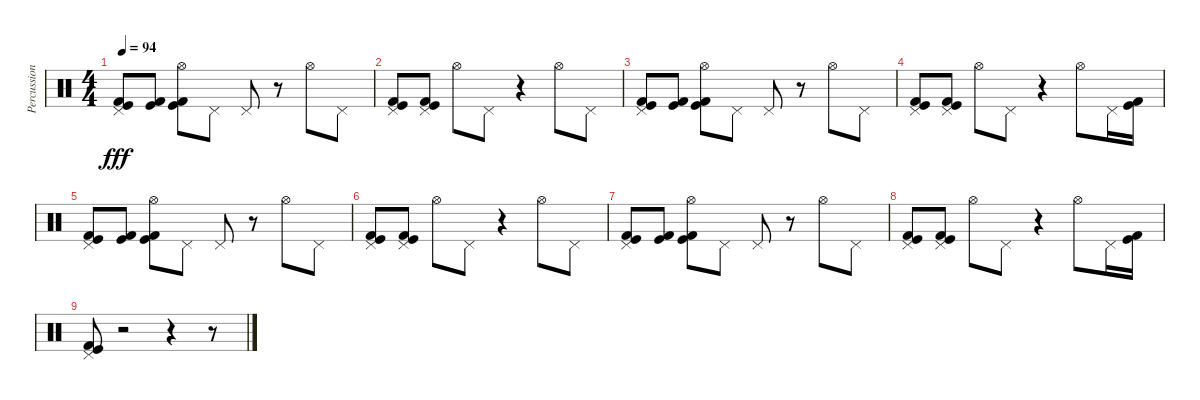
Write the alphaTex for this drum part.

\track ("Percussion" "Percussion") {instrument percussion}
\staff {score}
\articulation defaults
\ts (4 4)
\tempo 94
\clef neutral
\ks c
("Pedal Hi-Hat (hit)" "Kick (hit) 2" "Kick (hit)").8{dy fff} ("Kick (hit) 2" "Kick (hit)").8 ("Hi-Hat (open)" "Kick (hit) 2" "Kick (hit)").8 "Pedal Hi-Hat (hit)".8 "Pedal Hi-Hat (hit)".8 r.8 "Hi-Hat (open)".8 "Pedal Hi-Hat (hit)".8 |
("Kick (hit)" "Kick (hit) 2" "Pedal Hi-Hat (hit)").8 ("Kick (hit) 2" "Kick (hit)" "Pedal Hi-Hat (hit)").8 "Hi-Hat (open)".8 "Pedal Hi-Hat (hit)".8 r.4 "Hi-Hat (open)".8 "Pedal Hi-Hat (hit)".8 |
("Kick (hit)" "Kick (hit) 2" "Pedal Hi-Hat (hit)").8 ("Kick (hit) 2" "Kick (hit)").8 ("Hi-Hat (open)" "Kick (hit) 2" "Kick (hit)").8 "Pedal Hi-Hat (hit)".8 "Pedal Hi-Hat (hit)".8 r.8 "Hi-Hat (open)".8 "Pedal Hi-Hat (hit)".8 |
("Kick (hit)" "Kick (hit) 2" "Pedal Hi-Hat (hit)").8 ("Kick (hit) 2" "Kick (hit)" "Pedal Hi-Hat (hit)").8 "Hi-Hat (open)".8 "Pedal Hi-Hat (hit)".8 r.4 "Hi-Hat (open)".8 "Pedal Hi-Hat (hit)".16 ("Kick (hit) 2" "Kick (hit)").16 |
("Pedal Hi-Hat (hit)" "Kick (hit) 2" "Kick (hit)").8 ("Kick (hit) 2" "Kick (hit)").8 ("Hi-Hat (open)" "Kick (hit) 2" "Kick (hit)").8 "Pedal Hi-Hat (hit)".8 "Pedal Hi-Hat (hit)".8 r.8 "Hi-Hat (open)".8 "Pedal Hi-Hat (hit)".8 |
("Kick (hit)" "Kick (hit) 2" "Pedal Hi-Hat (hit)").8 ("Kick (hit) 2" "Kick (hit)" "Pedal Hi-Hat (hit)").8 "Hi-Hat (open)".8 "Pedal Hi-Hat (hit)".8 r.4 "Hi-Hat (open)".8 "Pedal Hi-Hat (hit)".8 |
("Kick (hit)" "Kick (hit) 2" "Pedal Hi-Hat (hit)").8 ("Kick (hit) 2" "Kick (hit)").8 ("Hi-Hat (open)" "Kick (hit) 2" "Kick (hit)").8 "Pedal Hi-Hat (hit)".8 "Pedal Hi-Hat (hit)".8 r.8 "Hi-Hat (open)".8 "Pedal Hi-Hat (hit)".8 |
("Kick (hit)" "Kick (hit) 2" "Pedal Hi-Hat (hit)").8 ("Kick (hit) 2" "Kick (hit)" "Pedal Hi-Hat (hit)").8 "Hi-Hat (open)".8 "Pedal Hi-Hat (hit)".8 r.4 "Hi-Hat (open)".8 "Pedal Hi-Hat (hit)".16 ("Kick (hit) 2" "Kick (hit)").16 |
("Pedal Hi-Hat (hit)" "Kick (hit) 2" "Kick (hit)").8 r.2 r.4 r.8
